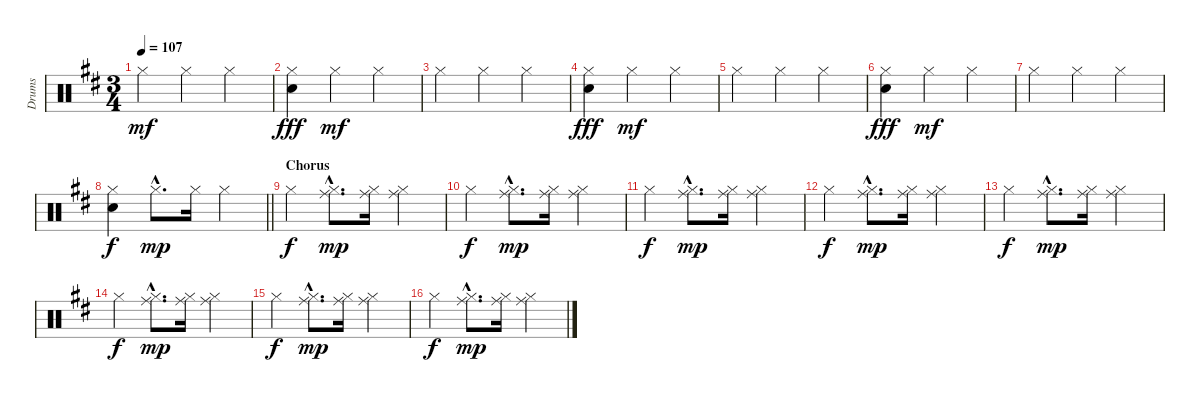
\track ("Drums" "Drums") {instrument percussion}
\staff {score}
\articulation defaults
\ts (3 4)
\tempo 107
\clef neutral
\ks d "Hi-Hat (closed)".4{dy mf} "Hi-Hat (closed)".4 "Hi-Hat (closed)".4
|
("Hi-Hat (closed)" "Electric Snare (hit)").4{dy fff} "Hi-Hat (closed)".4{dy mf} "Hi-Hat (closed)".4 |
"Hi-Hat (closed)".4 "Hi-Hat (closed)".4 "Hi-Hat (closed)".4 |
("Hi-Hat (closed)" "Electric Snare (hit)").4{dy fff} "Hi-Hat (closed)".4{dy mf} "Hi-Hat (closed)".4 |
"Hi-Hat (closed)".4 "Hi-Hat (closed)".4 "Hi-Hat (closed)".4 |
("Hi-Hat (closed)" "Electric Snare (hit)").4{dy fff} "Hi-Hat (closed)".4{dy mf} "Hi-Hat (closed)".4 |
"Hi-Hat (closed)".4 "Hi-Hat (closed)".4 "Hi-Hat (closed)".4 |
\barLineRight lightlight
("Hi-Hat (closed)" "Electric Snare (hit)").4{dy f} "Hi-Hat (closed)"{hac}.8{d dy mp} "Hi-Hat (closed)".16 "Hi-Hat (closed)".4 |
\section ("" "Chorus")
"Hi-Hat (closed)".4{dy f} ("Hi-Hat (closed)"{hac} "Ride (middle)"{hac}).8{d dy mp} ("Hi-Hat (closed)" "Ride (middle)").16 ("Hi-Hat (closed)" "Ride (middle)").4 |
"Hi-Hat (closed)".4{dy f} ("Hi-Hat (closed)"{hac} "Ride (middle)"{hac}).8{d dy mp} ("Hi-Hat (closed)" "Ride (middle)").16 ("Hi-Hat (closed)" "Ride (middle)").4 |
"Hi-Hat (closed)".4{dy f} ("Hi-Hat (closed)"{hac} "Ride (middle)"{hac}).8{d dy mp} ("Hi-Hat (closed)" "Ride (middle)").16 ("Hi-Hat (closed)" "Ride (middle)").4 |
"Hi-Hat (closed)".4{dy f} ("Hi-Hat (closed)"{hac} "Ride (middle)"{hac}).8{d dy mp} ("Hi-Hat (closed)" "Ride (middle)").16 ("Hi-Hat (closed)" "Ride (middle)").4 |
"Hi-Hat (closed)".4{dy f} ("Hi-Hat (closed)"{hac} "Ride (middle)"{hac}).8{d dy mp} ("Hi-Hat (closed)" "Ride (middle)").16 ("Hi-Hat (closed)" "Ride (middle)").4 |
"Hi-Hat (closed)".4{dy f} ("Hi-Hat (closed)"{hac} "Ride (middle)"{hac}).8{d dy mp} ("Hi-Hat (closed)" "Ride (middle)").16 ("Hi-Hat (closed)" "Ride (middle)").4 |
"Hi-Hat (closed)".4{dy f} ("Hi-Hat (closed)"{hac} "Ride (middle)"{hac}).8{d dy mp} ("Hi-Hat (closed)" "Ride (middle)").16 ("Hi-Hat (closed)" "Ride (middle)").4 |
"Hi-Hat (closed)".4{dy f} ("Hi-Hat (closed)"{hac} "Ride (middle)"{hac}).8{d dy mp} ("Hi-Hat (closed)" "Ride (middle)").16 ("Hi-Hat (closed)" "Ride (middle)").4
